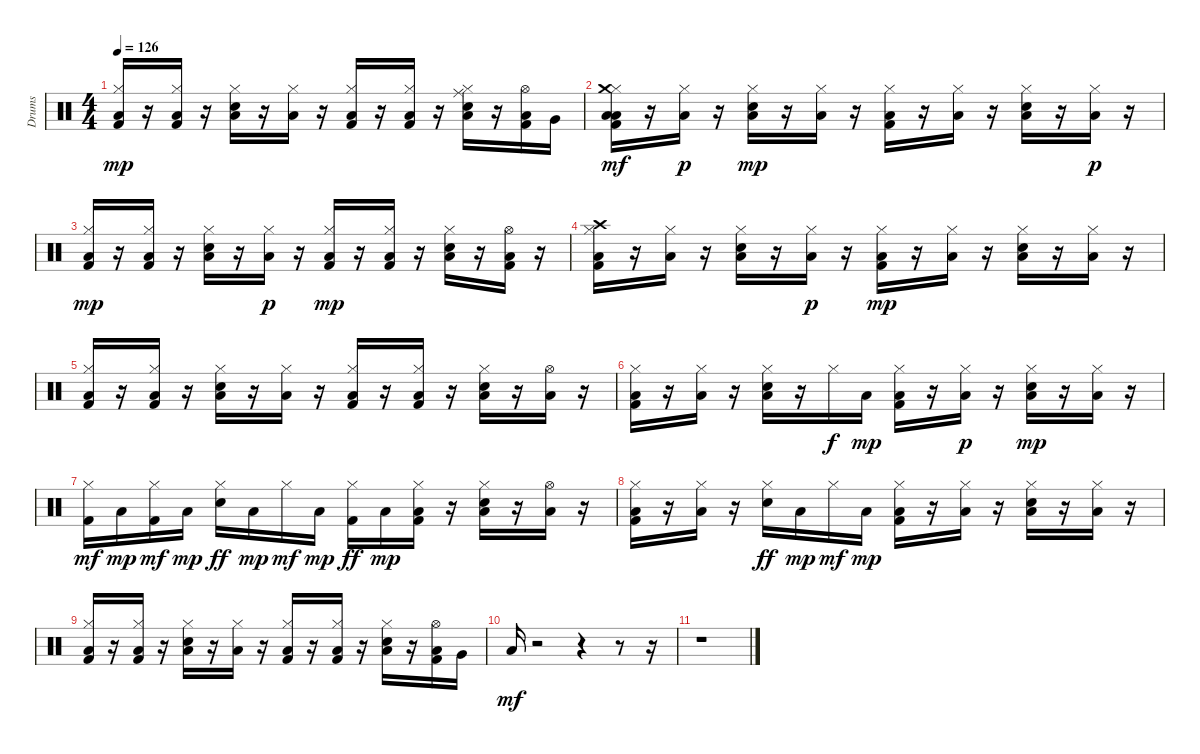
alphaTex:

\track ("Drums" "Drums") {instrument percussion}
\staff {score}
\articulation defaults
\ts (4 4)
\tempo 126
\clef neutral
\ks c
("Kick (hit) 2" "Hi-Hat (closed)" "Low Floor Tom (hit)").16{dy mp} r.16 ("Hi-Hat (closed)" "Kick (hit) 2" "Low Floor Tom (hit)").16 r.16 ("Hi-Hat (closed)" "Snare (hit) 2" "Low Floor Tom (hit)").16 r.16 ("Hi-Hat (closed)" "Low Floor Tom (hit)").16 r.16 ("Kick (hit) 2" "Hi-Hat (closed)" "Low Floor Tom (hit)").16 r.16 ("Hi-Hat (closed)" "Kick (hit) 2" "Low Floor Tom (hit)").16 r.16 ("Hi-Hat (closed)" "Snare (hit) 2" "Low Floor Tom (hit)" "Ride (middle)").16 r.16 ("Hi-Hat (open)" "Kick (hit) 2" "Low Floor Tom (hit)").16 "Very Low Tom (hit)".16 |
("Kick (hit) 2" "Hi-Hat (closed)" "Low Floor Tom (hit)" "Low Floor Tom (hit)" "Crash medium (hit)").16{dy mf} r.16 ("Hi-Hat (closed)" "Low Floor Tom (hit)").16{dy p} r.16 ("Hi-Hat (closed)" "Snare (hit) 2" "Low Floor Tom (hit)").16{dy mp} r.16 ("Hi-Hat (closed)" "Low Floor Tom (hit)").16 r.16 ("Kick (hit) 2" "Hi-Hat (closed)" "Low Floor Tom (hit)").16 r.16 ("Hi-Hat (closed)" "Low Floor Tom (hit)").16 r.16 ("Hi-Hat (closed)" "Snare (hit) 2" "Low Floor Tom (hit)").16 r.16 ("Hi-Hat (closed)" "Low Floor Tom (hit)").16{dy p} r.16 |
("Kick (hit) 2" "Hi-Hat (closed)" "Low Floor Tom (hit)").16{dy mp} r.16 ("Hi-Hat (closed)" "Kick (hit) 2" "Low Floor Tom (hit)").16 r.16 ("Hi-Hat (closed)" "Snare (hit) 2" "Low Floor Tom (hit)").16 r.16 ("Hi-Hat (closed)" "Low Floor Tom (hit)").16{dy p} r.16 ("Hi-Hat (closed)" "Kick (hit) 2" "Low Floor Tom (hit)").16{dy mp} r.16 ("Kick (hit) 2" "Hi-Hat (closed)" "Low Floor Tom (hit)").16 r.16 ("Hi-Hat (closed)" "Snare (hit) 2" "Low Floor Tom (hit)").16 r.16 ("Hi-Hat (open)" "Kick (hit) 2" "Low Floor Tom (hit)").16 r.16 |
("Hi-Hat (closed)" "Kick (hit) 2" "Low Floor Tom (hit)" "Crash high (hit)").16 r.16 ("Hi-Hat (closed)" "Low Floor Tom (hit)").16 r.16 ("Hi-Hat (closed)" "Snare (hit) 2" "Low Floor Tom (hit)").16 r.16 ("Hi-Hat (closed)" "Low Floor Tom (hit)").16{dy p} r.16 ("Kick (hit) 2" "Hi-Hat (closed)" "Low Floor Tom (hit)").16{dy mp} r.16 ("Hi-Hat (closed)" "Low Floor Tom (hit)").16 r.16 ("Snare (hit) 2" "Hi-Hat (closed)" "Low Floor Tom (hit)").16 r.16 ("Hi-Hat (closed)" "Low Floor Tom (hit)").16 r.16 |
("Hi-Hat (closed)" "Kick (hit) 2" "Low Floor Tom (hit)").16 r.16 ("Kick (hit) 2" "Hi-Hat (closed)" "Low Floor Tom (hit)").16{volume 16} r.16 ("Hi-Hat (closed)" "Snare (hit) 2" "Low Floor Tom (hit)").16{volume 15} r.16 ("Hi-Hat (closed)" "Low Floor Tom (hit)").16{volume 15} r.16 ("Kick (hit) 2" "Hi-Hat (closed)" "Low Floor Tom (hit)").16{volume 14} r.16 ("Hi-Hat (closed)" "Kick (hit) 2" "Low Floor Tom (hit)").16{volume 14} r.16 ("Snare (hit) 2" "Hi-Hat (closed)" "Low Floor Tom (hit)").16{volume 14} r.16 ("Hi-Hat (open)" "Low Floor Tom (hit)").16{volume 13} r.16 |
("Hi-Hat (closed)" "Kick (hit) 2" "Low Floor Tom (hit)").16{volume 13} r.16 ("Hi-Hat (closed)" "Low Floor Tom (hit)").16{volume 12} r.16 ("Snare (hit) 2" "Hi-Hat (closed)" "Low Floor Tom (hit)").16{volume 12} r.16 "Hi-Hat (closed)".16{dy f volume 12} "Low Floor Tom (hit)".16{dy mp volume 12} ("Kick (hit) 2" "Hi-Hat (closed)" "Low Floor Tom (hit)").16{volume 11} r.16 ("Hi-Hat (closed)" "Low Floor Tom (hit)").16{dy p volume 11} r.16 ("Snare (hit) 2" "Hi-Hat (closed)" "Low Floor Tom (hit)").16{dy mp volume 10} r.16 ("Hi-Hat (closed)" "Low Floor Tom (hit)").16{volume 10} r.16 |
("Kick (hit) 2" "Hi-Hat (closed)").16{dy mf volume 10} "Low Floor Tom (hit)".16{dy mp volume 10} ("Hi-Hat (closed)" "Kick (hit) 2").16{dy mf volume 9} "Low Floor Tom (hit)".16{dy mp volume 9} ("Hi-Hat (closed)" "Snare (hit) 2").16{dy ff volume 9} "Low Floor Tom (hit)".16{dy mp volume 9} "Hi-Hat (closed)".16{dy mf volume 8} "Low Floor Tom (hit)".16{dy mp volume 8} ("Hi-Hat (closed)" "Kick (hit) 2").16{dy ff volume 8} "Low Floor Tom (hit)".16{dy mp volume 8} ("Hi-Hat (closed)" "Kick (hit) 2" "Low Floor Tom (hit)").16{volume 8} r.16 ("Hi-Hat (closed)" "Snare (hit) 2" "Low Floor Tom (hit)").16{volume 7} r.16 ("Hi-Hat (open)" "Low Floor Tom (hit)").16{volume 7} r.16 |
("Hi-Hat (closed)" "Kick (hit) 2" "Low Floor Tom (hit)").16{volume 6} r.16 ("Hi-Hat (closed)" "Low Floor Tom (hit)").16{volume 6} r.16 ("Hi-Hat (closed)" "Snare (hit) 2").16{dy ff volume 6} "Low Floor Tom (hit)".16{dy mp volume 6} "Hi-Hat (closed)".16{dy mf volume 5} "Low Floor Tom (hit)".16{dy mp volume 5} ("Kick (hit) 2" "Hi-Hat (closed)" "Low Floor Tom (hit)").16{volume 5} r.16 ("Hi-Hat (closed)" "Low Floor Tom (hit)").16{volume 4} r.16 ("Hi-Hat (closed)" "Snare (hit) 2" "Low Floor Tom (hit)").16{volume 4} r.16 ("Hi-Hat (closed)" "Low Floor Tom (hit)").16{volume 4} r.16 |
("Kick (hit) 2" "Hi-Hat (closed)" "Low Floor Tom (hit)").16{volume 3} r.16 ("Hi-Hat (closed)" "Kick (hit) 2" "Low Floor Tom (hit)").16{volume 3} r.16 ("Hi-Hat (closed)" "Snare (hit) 2" "Low Floor Tom (hit)").16{volume 2} r.16 ("Hi-Hat (closed)" "Low Floor Tom (hit)").16{volume 2} r.16 ("Kick (hit) 2" "Hi-Hat (closed)" "Low Floor Tom (hit)").16{volume 2} r.16 ("Hi-Hat (closed)" "Kick (hit) 2" "Low Floor Tom (hit)").16{volume 1} r.16 ("Hi-Hat (closed)" "Snare (hit) 2" "Low Floor Tom (hit)").16{volume 1} r.16 ("Hi-Hat (open)" "Kick (hit) 2" "Low Floor Tom (hit)").16{volume 1} "Very Low Tom (hit)".16{volume 0} |
"Low Floor Tom (hit)".16{dy mf volume 0} r.2 r.4 r.8 r.16 |
r.1
